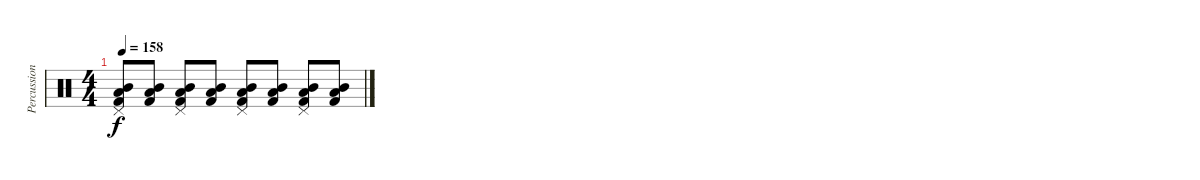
\track ("Percussion" "Percussion") {instrument percussion}
\staff {score}
\articulation defaults
\ts (4 4)
\tempo 158
\clef neutral
\ks c
("Pedal Hi-Hat (hit)" "Mid Tom (hit)" "Low Floor Tom (hit)" "Kick (hit) 2").8{dy f} ("Mid Tom (hit)" "Low Floor Tom (hit)" "Kick (hit) 2").8 ("Pedal Hi-Hat (hit)" "Mid Tom (hit)" "Low Floor Tom (hit)" "Kick (hit) 2").8 ("Mid Tom (hit)" "Low Floor Tom (hit)" "Kick (hit) 2").8 ("Pedal Hi-Hat (hit)" "Mid Tom (hit)" "Low Floor Tom (hit)" "Kick (hit) 2").8 ("Mid Tom (hit)" "Low Floor Tom (hit)" "Kick (hit) 2").8 ("Pedal Hi-Hat (hit)" "Mid Tom (hit)" "Low Floor Tom (hit)" "Kick (hit) 2").8 ("Mid Tom (hit)" "Low Floor Tom (hit)" "Kick (hit) 2").8
